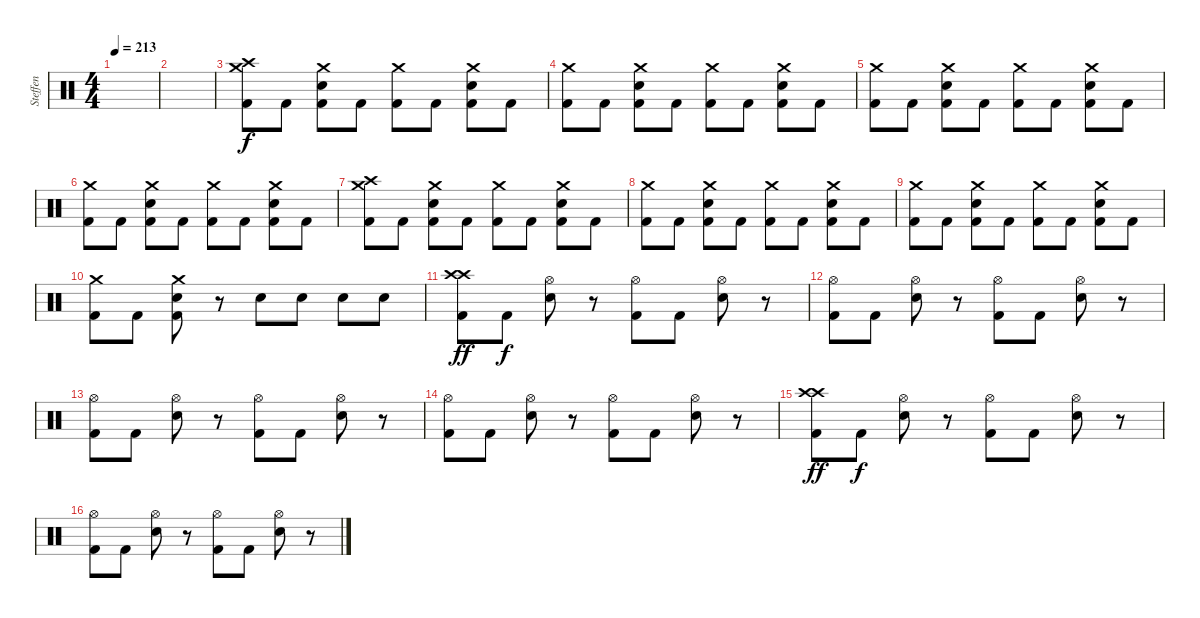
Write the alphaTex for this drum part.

\track ("Steffen" "Steffen") {instrument percussion}
\staff {score}
\articulation defaults
\ts (4 4)
\tempo 213
\clef neutral
\ks c
|
|
("Crash high (hit)" "Crash medium (hit)" "Kick (hit) 2").8 "Kick (hit) 2".8 ("Crash medium (hit)" "Snare (hit) 2" "Kick (hit) 2").8 "Kick (hit) 2".8 ("Crash medium (hit)" "Kick (hit) 2").8 "Kick (hit) 2".8 ("Crash medium (hit)" "Snare (hit) 2" "Kick (hit) 2").8 "Kick (hit) 2".8 |
("Crash medium (hit)" "Kick (hit) 2").8 "Kick (hit) 2".8 ("Crash medium (hit)" "Snare (hit) 2" "Kick (hit) 2").8 "Kick (hit) 2".8 ("Crash medium (hit)" "Kick (hit) 2").8 "Kick (hit) 2".8 ("Crash medium (hit)" "Snare (hit) 2" "Kick (hit) 2").8 "Kick (hit) 2".8 |
("Crash medium (hit)" "Kick (hit) 2").8 "Kick (hit) 2".8 ("Crash medium (hit)" "Snare (hit) 2" "Kick (hit) 2").8 "Kick (hit) 2".8 ("Crash medium (hit)" "Kick (hit) 2").8 "Kick (hit) 2".8 ("Crash medium (hit)" "Snare (hit) 2" "Kick (hit) 2").8 "Kick (hit) 2".8 |
("Crash medium (hit)" "Kick (hit) 2").8 "Kick (hit) 2".8 ("Crash medium (hit)" "Snare (hit) 2" "Kick (hit) 2").8 "Kick (hit) 2".8 ("Crash medium (hit)" "Kick (hit) 2").8 "Kick (hit) 2".8 ("Crash medium (hit)" "Snare (hit) 2" "Kick (hit) 2").8 "Kick (hit) 2".8 |
("Crash high (hit)" "Crash medium (hit)" "Kick (hit) 2").8 "Kick (hit) 2".8 ("Crash medium (hit)" "Snare (hit) 2" "Kick (hit) 2").8 "Kick (hit) 2".8 ("Crash medium (hit)" "Kick (hit) 2").8 "Kick (hit) 2".8 ("Crash medium (hit)" "Snare (hit) 2" "Kick (hit) 2").8 "Kick (hit) 2".8 |
("Crash medium (hit)" "Kick (hit) 2").8 "Kick (hit) 2".8 ("Crash medium (hit)" "Snare (hit) 2" "Kick (hit) 2").8 "Kick (hit) 2".8 ("Crash medium (hit)" "Kick (hit) 2").8 "Kick (hit) 2".8 ("Crash medium (hit)" "Snare (hit) 2" "Kick (hit) 2").8 "Kick (hit) 2".8 |
("Crash medium (hit)" "Kick (hit) 2").8 "Kick (hit) 2".8 ("Crash medium (hit)" "Snare (hit) 2" "Kick (hit) 2").8 "Kick (hit) 2".8 ("Crash medium (hit)" "Kick (hit) 2").8 "Kick (hit) 2".8 ("Crash medium (hit)" "Snare (hit) 2" "Kick (hit) 2").8 "Kick (hit) 2".8 |
("Crash medium (hit)" "Kick (hit) 2").8 "Kick (hit) 2".8 ("Crash medium (hit)" "Snare (hit) 2" "Kick (hit) 2").8 r.8 "Snare (hit) 2".8 "Snare (hit) 2".8 "Snare (hit) 2".8 "Snare (hit) 2".8 |
("Crash high (hit)" "Crash high (hit)" "Kick (hit) 2").8{dy ff} "Kick (hit) 2".8{dy f} ("Hi-Hat (open)" "Snare (hit) 2").8 r.8 ("Hi-Hat (open)" "Kick (hit) 2").8 "Kick (hit) 2".8 ("Hi-Hat (open)" "Snare (hit) 2").8 r.8 |
("Hi-Hat (open)" "Kick (hit) 2").8 "Kick (hit) 2".8 ("Hi-Hat (open)" "Snare (hit) 2").8 r.8 ("Hi-Hat (open)" "Kick (hit) 2").8 "Kick (hit) 2".8 ("Hi-Hat (open)" "Snare (hit) 2").8 r.8 |
("Hi-Hat (open)" "Kick (hit) 2").8 "Kick (hit) 2".8 ("Hi-Hat (open)" "Snare (hit) 2").8 r.8 ("Hi-Hat (open)" "Kick (hit) 2").8 "Kick (hit) 2".8 ("Hi-Hat (open)" "Snare (hit) 2").8 r.8 |
("Hi-Hat (open)" "Kick (hit) 2").8 "Kick (hit) 2".8 ("Hi-Hat (open)" "Snare (hit) 2").8 r.8 ("Hi-Hat (open)" "Kick (hit) 2").8 "Kick (hit) 2".8 ("Hi-Hat (open)" "Snare (hit) 2").8 r.8 |
("Crash high (hit)" "Crash high (hit)" "Kick (hit) 2").8{dy ff} "Kick (hit) 2".8{dy f} ("Hi-Hat (open)" "Snare (hit) 2").8 r.8 ("Hi-Hat (open)" "Kick (hit) 2").8 "Kick (hit) 2".8 ("Hi-Hat (open)" "Snare (hit) 2").8 r.8 |
("Hi-Hat (open)" "Kick (hit) 2").8 "Kick (hit) 2".8 ("Hi-Hat (open)" "Snare (hit) 2").8 r.8 ("Hi-Hat (open)" "Kick (hit) 2").8 "Kick (hit) 2".8 ("Hi-Hat (open)" "Snare (hit) 2").8 r.8
